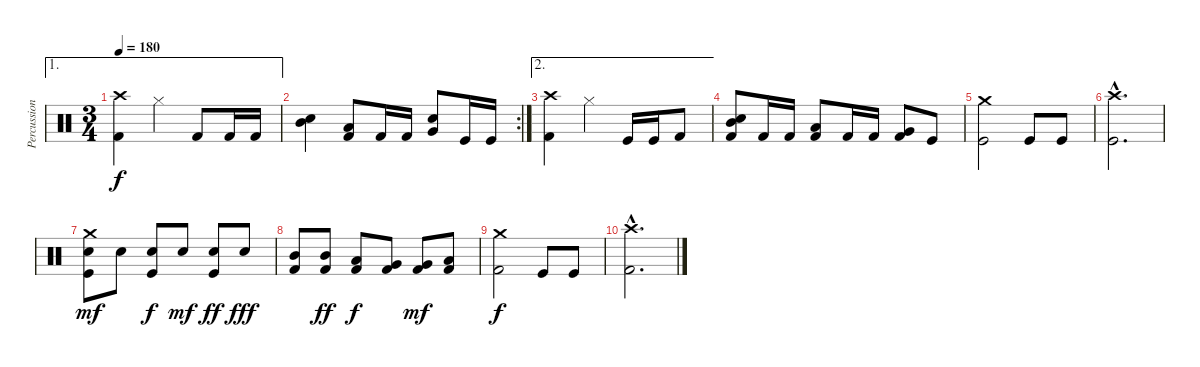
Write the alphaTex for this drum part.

\track ("Percussion" "Percussion") {instrument percussion}
\staff {score}
\articulation defaults
\ae 1
\ts (3 4)
\tempo 180
\clef neutral
\ks c
("Crash high (hit)" "Kick (hit) 2").4{dy f} "Hi-Hat (closed)".4 "Kick (hit) 2".8 "Kick (hit) 2".16 "Kick (hit) 2".16 |
\rc 2
("Mid Tom (hit)" "Snare (hit) 2").4 ("Low Tom (hit)" "Kick (hit) 2").8 "Kick (hit) 2".16 "Kick (hit) 2".16 ("Very Low Tom (hit)" "Snare (hit) 2").8 "Kick (hit)".16 "Kick (hit)".16 |
\ae 2
("Crash high (hit)" "Kick (hit) 2").4 "Hi-Hat (closed)".4 "Kick (hit)".16 "Kick (hit)".16 "Kick (hit) 2".8 |
("Snare (hit) 2" "Mid Tom (hit)" "Kick (hit) 2").8 "Kick (hit) 2".16 "Kick (hit) 2".16 ("Low Tom (hit)" "Kick (hit) 2").8 "Kick (hit) 2".16 "Kick (hit) 2".16 ("Very Low Tom (hit)" "Kick (hit) 2").8 "Kick (hit)".8 |
("Crash medium (hit)" "Kick (hit)").2 "Kick (hit)".8 "Kick (hit)".8 |
("Crash high (hit)"{hac} "Kick (hit)"{hac}).2{d} |
("Crash medium (hit)" "Snare (hit) 2" "Kick (hit)").8{dy mf} "Snare (hit) 2".8 ("Snare (hit) 2" "Kick (hit)").8{dy f} "Snare (hit) 2".8{dy mf} ("Snare (hit) 2" "Kick (hit)").8{dy ff} "Snare (hit) 2".8{dy fff} |
("Mid Tom (hit)" "Kick (hit) 2").8 ("Mid Tom (hit)" "Kick (hit) 2").8{dy ff} ("Low Tom (hit)" "Kick (hit) 2").8{dy f} ("Very Low Tom (hit)" "Kick (hit) 2").8 ("Very Low Tom (hit)" "Kick (hit) 2").8{dy mf} ("Low Floor Tom (hit)" "Kick (hit) 2").8 |
("Crash medium (hit)" "Kick (hit) 2").2{dy f} "Kick (hit)".8 "Kick (hit)".8 |
("Crash high (hit)"{hac} "Kick (hit) 2"{hac}).2{d}
